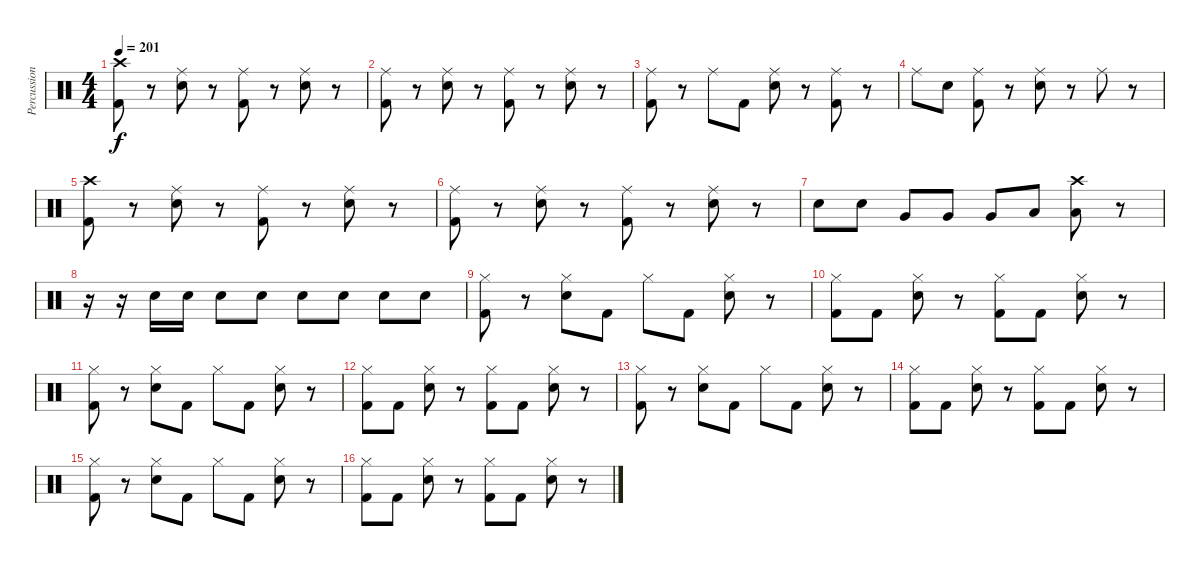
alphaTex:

\track ("Percussion" "Percussion") {instrument percussion}
\staff {score}
\articulation defaults
\ts (4 4)
\tempo 201
\clef neutral
\ks c
("Crash high (hit)" "Kick (hit) 2").8{dy f} r.8 ("Ride (middle)" "Electric Snare (hit)").8 r.8 ("Ride (middle)" "Kick (hit) 2").8 r.8 ("Ride (middle)" "Electric Snare (hit)").8 r.8 |
("Ride (middle)" "Kick (hit) 2").8 r.8 ("Ride (middle)" "Electric Snare (hit)").8 r.8 ("Ride (middle)" "Kick (hit) 2").8 r.8 ("Ride (middle)" "Electric Snare (hit)").8 r.8 |
("Ride (middle)" "Kick (hit) 2").8 r.8 "Ride (middle)".8 "Kick (hit) 2".8 ("Ride (middle)" "Electric Snare (hit)").8 r.8 ("Ride (middle)" "Kick (hit) 2").8 r.8 |
"Ride (middle)".8 "Electric Snare (hit)".8 ("Ride (middle)" "Kick (hit) 2").8 r.8 ("Ride (middle)" "Electric Snare (hit)").8 r.8 "Ride (middle)".8 r.8 |
("Crash high (hit)" "Kick (hit) 2").8 r.8 ("Ride (middle)" "Electric Snare (hit)").8 r.8 ("Ride (middle)" "Kick (hit) 2").8 r.8 ("Ride (middle)" "Electric Snare (hit)").8 r.8 |
("Ride (middle)" "Kick (hit) 2").8 r.8 ("Ride (middle)" "Electric Snare (hit)").8 r.8 ("Ride (middle)" "Kick (hit) 2").8 r.8 ("Ride (middle)" "Electric Snare (hit)").8 r.8 |
"Electric Snare (hit)".8 "Electric Snare (hit)".8 "Very Low Tom (hit)".8 "Very Low Tom (hit)".8 "Very Low Tom (hit)".8 "Low Floor Tom (hit)".8 ("Crash high (hit)" "Low Floor Tom (hit)").8 r.8 |
r.16 r.16 "Electric Snare (hit)".16 "Electric Snare (hit)".16 "Electric Snare (hit)".8 "Electric Snare (hit)".8 "Electric Snare (hit)".8 "Electric Snare (hit)".8 "Electric Snare (hit)".8 "Electric Snare (hit)".8 |
("Hi-Hat (closed)" "Kick (hit) 2").8 r.8 ("Hi-Hat (closed)" "Electric Snare (hit)").8 "Kick (hit) 2".8 "Hi-Hat (closed)".8 "Kick (hit) 2".8 ("Hi-Hat (closed)" "Electric Snare (hit)").8 r.8 |
("Hi-Hat (closed)" "Kick (hit) 2").8 "Kick (hit) 2".8 ("Hi-Hat (closed)" "Electric Snare (hit)").8 r.8 ("Hi-Hat (closed)" "Kick (hit) 2").8 "Kick (hit) 2".8 ("Hi-Hat (closed)" "Electric Snare (hit)").8 r.8 |
("Hi-Hat (closed)" "Kick (hit) 2").8 r.8 ("Hi-Hat (closed)" "Electric Snare (hit)").8 "Kick (hit) 2".8 "Hi-Hat (closed)".8 "Kick (hit) 2".8 ("Hi-Hat (closed)" "Electric Snare (hit)").8 r.8 |
("Hi-Hat (closed)" "Kick (hit) 2").8 "Kick (hit) 2".8 ("Hi-Hat (closed)" "Electric Snare (hit)").8 r.8 ("Hi-Hat (closed)" "Kick (hit) 2").8 "Kick (hit) 2".8 ("Hi-Hat (closed)" "Electric Snare (hit)").8 r.8 |
("Hi-Hat (closed)" "Kick (hit) 2").8 r.8 ("Hi-Hat (closed)" "Electric Snare (hit)").8 "Kick (hit) 2".8 "Hi-Hat (closed)".8 "Kick (hit) 2".8 ("Hi-Hat (closed)" "Electric Snare (hit)").8 r.8 |
("Hi-Hat (closed)" "Kick (hit) 2").8 "Kick (hit) 2".8 ("Hi-Hat (closed)" "Electric Snare (hit)").8 r.8 ("Hi-Hat (closed)" "Kick (hit) 2").8 "Kick (hit) 2".8 ("Hi-Hat (closed)" "Electric Snare (hit)").8 r.8 |
("Hi-Hat (closed)" "Kick (hit) 2").8 r.8 ("Hi-Hat (closed)" "Electric Snare (hit)").8 "Kick (hit) 2".8 "Hi-Hat (closed)".8 "Kick (hit) 2".8 ("Hi-Hat (closed)" "Electric Snare (hit)").8 r.8 |
("Hi-Hat (closed)" "Kick (hit) 2").8 "Kick (hit) 2".8 ("Hi-Hat (closed)" "Electric Snare (hit)").8 r.8 ("Hi-Hat (closed)" "Kick (hit) 2").8 "Kick (hit) 2".8 ("Hi-Hat (closed)" "Electric Snare (hit)").8 r.8
